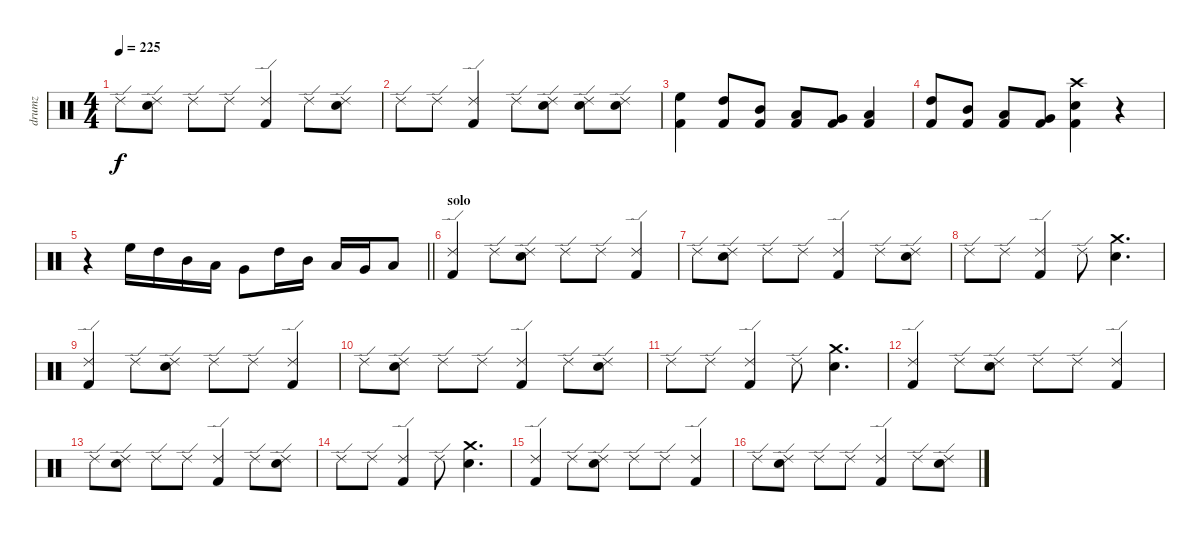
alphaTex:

\track ("drumz" "drumz") {instrument percussion}
\staff {score}
\articulation defaults
\ts (4 4)
\tempo 225
\clef neutral
\ks c "Ride (edge) 2".8{dy f}
("Ride (edge) 2" "Electric Snare (hit)").8 "Ride (edge) 2".8 "Ride (edge) 2".8 ("Ride (edge) 2" "Kick (hit) 2").4 "Ride (edge) 2".8 ("Ride (edge) 2" "Electric Snare (hit)").8 |
"Ride (edge) 2".8 "Ride (edge) 2".8 ("Ride (edge) 2" "Kick (hit) 2").4 "Ride (edge) 2".8 ("Ride (edge) 2" "Electric Snare (hit)").8 ("Ride (edge) 2" "Electric Snare (hit)").8 ("Ride (edge) 2" "Electric Snare (hit)").8 |
("High Floor Tom (hit)" "Kick (hit) 2").4 ("High Tom (hit)" "Kick (hit) 2").8 ("Mid Tom (hit)" "Kick (hit) 2").8 ("Low Tom (hit)" "Kick (hit) 2").8 ("Very Low Tom (hit)" "Kick (hit) 2").8 ("Low Floor Tom (hit)" "Kick (hit) 2").4 |
("High Tom (hit)" "Kick (hit) 2").8 ("Mid Tom (hit)" "Kick (hit) 2").8 ("Low Tom (hit)" "Kick (hit) 2").8 ("Very Low Tom (hit)" "Kick (hit) 2").8 ("Crash high (hit)" "Electric Snare (hit)" "Kick (hit) 2").4 r.4 |
\barLineRight lightlight
r.4 "High Floor Tom (hit)".16 "High Tom (hit)".16 "Mid Tom (hit)".16 "Low Tom (hit)".16 "Very Low Tom (hit)".8 "High Tom (hit)".16 "Mid Tom (hit)".16 "Low Tom (hit)".16 "Very Low Tom (hit)".16 "Low Floor Tom (hit)".8 |
\section ("" "solo")
("Ride (edge) 2" "Kick (hit) 2").4 "Ride (edge) 2".8 ("Ride (edge) 2" "Electric Snare (hit)").8 "Ride (edge) 2".8 "Ride (edge) 2".8 ("Ride (edge) 2" "Kick (hit) 2").4 |
"Ride (edge) 2".8 ("Ride (edge) 2" "Electric Snare (hit)").8 "Ride (edge) 2".8 "Ride (edge) 2".8 ("Ride (edge) 2" "Kick (hit) 2").4 "Ride (edge) 2".8 ("Ride (edge) 2" "Electric Snare (hit)").8 |
"Ride (edge) 2".8 "Ride (edge) 2".8 ("Ride (edge) 2" "Kick (hit) 2").4 "Ride (edge) 2".8 ("Crash medium (hit)" "Electric Snare (hit)").4{d} |
("Ride (edge) 2" "Kick (hit) 2").4 "Ride (edge) 2".8 ("Ride (edge) 2" "Electric Snare (hit)").8 "Ride (edge) 2".8 "Ride (edge) 2".8 ("Ride (edge) 2" "Kick (hit) 2").4 |
"Ride (edge) 2".8 ("Ride (edge) 2" "Electric Snare (hit)").8 "Ride (edge) 2".8 "Ride (edge) 2".8 ("Ride (edge) 2" "Kick (hit) 2").4 "Ride (edge) 2".8 ("Ride (edge) 2" "Electric Snare (hit)").8 |
"Ride (edge) 2".8 "Ride (edge) 2".8 ("Ride (edge) 2" "Kick (hit) 2").4 "Ride (edge) 2".8 ("Crash medium (hit)" "Electric Snare (hit)").4{d} |
("Ride (edge) 2" "Kick (hit) 2").4 "Ride (edge) 2".8 ("Ride (edge) 2" "Electric Snare (hit)").8 "Ride (edge) 2".8 "Ride (edge) 2".8 ("Ride (edge) 2" "Kick (hit) 2").4 |
"Ride (edge) 2".8 ("Ride (edge) 2" "Electric Snare (hit)").8 "Ride (edge) 2".8 "Ride (edge) 2".8 ("Ride (edge) 2" "Kick (hit) 2").4 "Ride (edge) 2".8 ("Ride (edge) 2" "Electric Snare (hit)").8 |
"Ride (edge) 2".8 "Ride (edge) 2".8 ("Ride (edge) 2" "Kick (hit) 2").4 "Ride (edge) 2".8 ("Crash medium (hit)" "Electric Snare (hit)").4{d} |
("Ride (edge) 2" "Kick (hit) 2").4 "Ride (edge) 2".8 ("Ride (edge) 2" "Electric Snare (hit)").8 "Ride (edge) 2".8 "Ride (edge) 2".8 ("Ride (edge) 2" "Kick (hit) 2").4 |
"Ride (edge) 2".8 ("Ride (edge) 2" "Electric Snare (hit)").8 "Ride (edge) 2".8 "Ride (edge) 2".8 ("Ride (edge) 2" "Kick (hit) 2").4 "Ride (edge) 2".8 ("Ride (edge) 2" "Electric Snare (hit)").8
